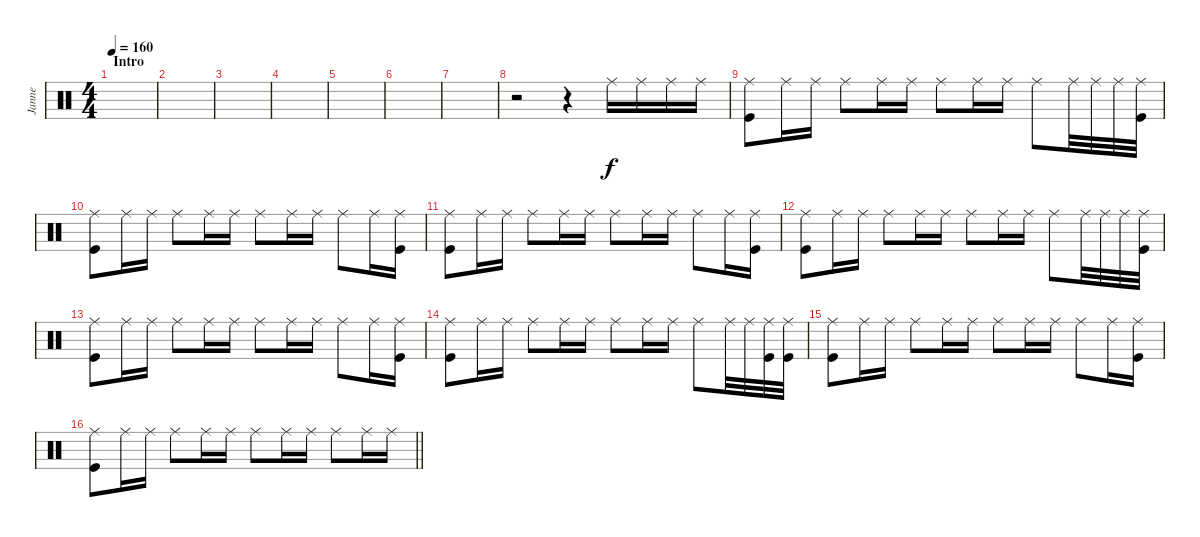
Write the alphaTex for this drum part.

\track ("Janne" "Janne") {instrument percussion}
\staff {score}
\articulation defaults
\ts (4 4)
\section ("" "Intro")
\tempo 160
\clef neutral
\ks c
|
|
|
|
|
|
|
r.2 r.4 "Ride (middle)".16 "Ride (middle)".16 "Ride (middle)".16 "Ride (middle)".16 |
("Ride (middle)" "Kick (hit)").8 "Ride (middle)".16 "Ride (middle)".16 "Ride (middle)".8 "Ride (middle)".16 "Ride (middle)".16 "Ride (middle)".8 "Ride (middle)".16 "Ride (middle)".16 "Ride (middle)".8 "Ride (middle)".32 "Ride (middle)".32 "Ride (middle)".32 ("Ride (middle)" "Kick (hit)").32 |
("Ride (middle)" "Kick (hit)").8 "Ride (middle)".16 "Ride (middle)".16 "Ride (middle)".8 "Ride (middle)".16 "Ride (middle)".16 "Ride (middle)".8 "Ride (middle)".16 "Ride (middle)".16 "Ride (middle)".8 "Ride (middle)".16 ("Ride (middle)" "Kick (hit)").16 |
("Ride (middle)" "Kick (hit)").8 "Ride (middle)".16 "Ride (middle)".16 "Ride (middle)".8 "Ride (middle)".16 "Ride (middle)".16 "Ride (middle)".8 "Ride (middle)".16 "Ride (middle)".16 "Ride (middle)".8 "Ride (middle)".16 ("Ride (middle)" "Kick (hit)").16 |
("Ride (middle)" "Kick (hit)").8 "Ride (middle)".16 "Ride (middle)".16 "Ride (middle)".8 "Ride (middle)".16 "Ride (middle)".16 "Ride (middle)".8 "Ride (middle)".16 "Ride (middle)".16 "Ride (middle)".8 "Ride (middle)".32 "Ride (middle)".32 "Ride (middle)".32 ("Ride (middle)" "Kick (hit)").32 |
("Ride (middle)" "Kick (hit)").8 "Ride (middle)".16 "Ride (middle)".16 "Ride (middle)".8 "Ride (middle)".16 "Ride (middle)".16 "Ride (middle)".8 "Ride (middle)".16 "Ride (middle)".16 "Ride (middle)".8 "Ride (middle)".16 ("Ride (middle)" "Kick (hit)").16 |
("Ride (middle)" "Kick (hit)").8 "Ride (middle)".16 "Ride (middle)".16 "Ride (middle)".8 "Ride (middle)".16 "Ride (middle)".16 "Ride (middle)".8 "Ride (middle)".16 "Ride (middle)".16 "Ride (middle)".8 "Ride (middle)".32 "Ride (middle)".32 ("Ride (middle)" "Kick (hit)").32 ("Ride (middle)" "Kick (hit)").32 |
("Ride (middle)" "Kick (hit)").8 "Ride (middle)".16 "Ride (middle)".16 "Ride (middle)".8 "Ride (middle)".16 "Ride (middle)".16 "Ride (middle)".8 "Ride (middle)".16 "Ride (middle)".16 "Ride (middle)".8 "Ride (middle)".16 ("Ride (middle)" "Kick (hit)").16 |
\barLineRight lightlight
("Ride (middle)" "Kick (hit)").8 "Ride (middle)".16 "Ride (middle)".16 "Ride (middle)".8 "Ride (middle)".16 "Ride (middle)".16 "Ride (middle)".8 "Ride (middle)".16 "Ride (middle)".16 "Ride (middle)".8 "Ride (middle)".16 "Ride (middle)".16
